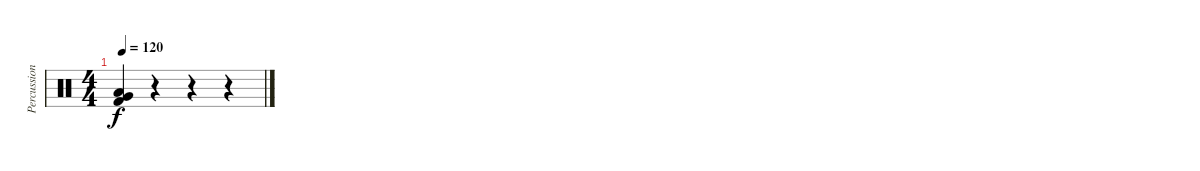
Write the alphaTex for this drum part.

\track ("Percussion" "Percussion") {instrument percussion}
\staff {score}
\articulation defaults
\ts (4 4)
\tempo 120
\clef neutral
\ks c
("Low Floor Tom (hit)" "Very Low Tom (hit)" "Kick (hit) 2").4{dy f} r.4 r.4 r.4
